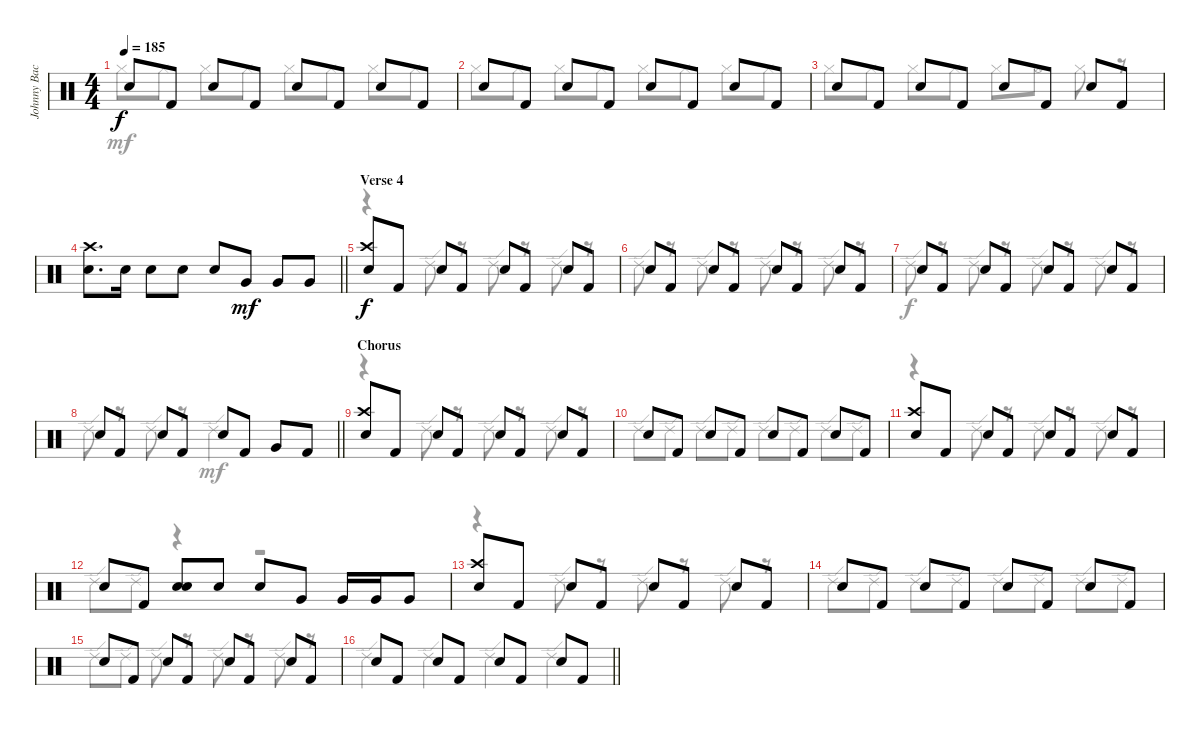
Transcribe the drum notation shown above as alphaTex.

\track ("Johnny Backbeat" "Johnny Bac") {instrument percussion}
\staff {score}
\articulation defaults
\voice
\ts (4 4)
\tempo 185
\clef neutral
\ks c "Electric Snare (hit)".8{dy f} "Kick (hit) 2".8 "Electric Snare (hit)".8 "Kick (hit) 2".8 "Electric Snare (hit)".8 "Kick (hit) 2".8 "Electric Snare (hit)".8 "Kick (hit) 2".8
|
"Electric Snare (hit)".8 "Kick (hit) 2".8 "Electric Snare (hit)".8 "Kick (hit) 2".8 "Electric Snare (hit)".8 "Kick (hit) 2".8 "Electric Snare (hit)".8 "Kick (hit) 2".8 |
"Electric Snare (hit)".8 "Kick (hit) 2".8 "Electric Snare (hit)".8 "Kick (hit) 2".8 "Electric Snare (hit)".8 "Kick (hit) 2".8 "Electric Snare (hit)".8 "Kick (hit) 2".8 |
\barLineRight lightlight
("Crash high (hit)" "Electric Snare (hit)").8{d} "Electric Snare (hit)".16 "Electric Snare (hit)".8 "Electric Snare (hit)".8 "Electric Snare (hit)".8 "Very Low Tom (hit)".8{dy mf} "Very Low Tom (hit)".8 "Very Low Tom (hit)".8 |
\section ("" "Verse 4")
("Crash high (hit)" "Electric Snare (hit)").8{dy f} "Kick (hit) 2".8 "Electric Snare (hit)".8 "Kick (hit) 2".8 "Electric Snare (hit)".8 "Kick (hit) 2".8 "Electric Snare (hit)".8 "Kick (hit) 2".8 |
"Electric Snare (hit)".8 "Kick (hit) 2".8 "Electric Snare (hit)".8 "Kick (hit) 2".8 "Electric Snare (hit)".8 "Kick (hit) 2".8 "Electric Snare (hit)".8 "Kick (hit) 2".8 |
"Electric Snare (hit)".8 "Kick (hit) 2".8 "Electric Snare (hit)".8 "Kick (hit) 2".8 "Electric Snare (hit)".8 "Kick (hit) 2".8 "Electric Snare (hit)".8 "Kick (hit) 2".8 |
\barLineRight lightlight "Electric Snare (hit)".8 "Kick (hit) 2".8 "Electric Snare (hit)".8 "Kick (hit) 2".8 "Electric Snare (hit)".8 "Kick (hit) 2".8 "Very Low Tom (hit)".8 "Kick (hit) 2".8
|
\section ("" "Chorus")
("Crash high (hit)" "Electric Snare (hit)").8 "Kick (hit) 2".8 "Electric Snare (hit)".8 "Kick (hit) 2".8 "Electric Snare (hit)".8 "Kick (hit) 2".8 "Electric Snare (hit)".8 "Kick (hit) 2".8 |
"Electric Snare (hit)".8 "Kick (hit) 2".8 "Electric Snare (hit)".8 "Kick (hit) 2".8 "Electric Snare (hit)".8 "Kick (hit) 2".8 "Electric Snare (hit)".8 "Kick (hit) 2".8 |
("Crash high (hit)" "Electric Snare (hit)").8 "Kick (hit) 2".8 "Electric Snare (hit)".8 "Kick (hit) 2".8 "Electric Snare (hit)".8 "Kick (hit) 2".8 "Electric Snare (hit)".8 "Kick (hit) 2".8 |
"Electric Snare (hit)".8 "Kick (hit) 2".8 ("Electric Snare (hit)" "Electric Snare (hit)").8 "Electric Snare (hit)".8 "Electric Snare (hit)".8 "Very Low Tom (hit)".8 "Very Low Tom (hit)".16 "Very Low Tom (hit)".16 "Very Low Tom (hit)".8 |
("Crash high (hit)" "Electric Snare (hit)").8 "Kick (hit) 2".8 "Electric Snare (hit)".8 "Kick (hit) 2".8 "Electric Snare (hit)".8 "Kick (hit) 2".8 "Electric Snare (hit)".8 "Kick (hit) 2".8 |
"Electric Snare (hit)".8 "Kick (hit) 2".8 "Electric Snare (hit)".8 "Kick (hit) 2".8 "Electric Snare (hit)".8 "Kick (hit) 2".8 "Electric Snare (hit)".8 "Kick (hit) 2".8 |
"Electric Snare (hit)".8 "Kick (hit) 2".8 "Electric Snare (hit)".8 "Kick (hit) 2".8 "Electric Snare (hit)".8 "Kick (hit) 2".8 "Electric Snare (hit)".8 "Kick (hit) 2".8 |
\barLineRight lightlight "Electric Snare (hit)".8 "Kick (hit) 2".8 "Electric Snare (hit)".8 "Kick (hit) 2".8 "Electric Snare (hit)".8 "Kick (hit) 2".8 "Electric Snare (hit)".8 "Kick (hit) 2".8
\voice
\clef neutral
\ottava regular
\simile none
\ks c "Hi-Hat (closed)".8{dy mf} "Hi-Hat (closed)".8 "Hi-Hat (closed)".8 "Hi-Hat (closed)".8 "Hi-Hat (closed)".8 "Hi-Hat (closed)".8 "Hi-Hat (closed)".8 "Hi-Hat (closed)".8
|
"Hi-Hat (closed)".8 "Hi-Hat (closed)".8 "Hi-Hat (closed)".8 "Hi-Hat (closed)".8 "Hi-Hat (closed)".8 "Hi-Hat (closed)".8 "Hi-Hat (closed)".8 "Hi-Hat (closed)".8 |
"Hi-Hat (closed)".8 "Hi-Hat (closed)".8 "Hi-Hat (closed)".8 "Hi-Hat (closed)".8 "Hi-Hat (closed)".8 "Hi-Hat (open)".8 "Hi-Hat (closed)".8 r.8 |
\barLineRight lightlight
|
r.4 "Ride (edge) 2".8 r.8 "Ride (edge) 2".8 r.8 "Ride (edge) 2".8 r.8 |
"Ride (edge) 2".8 r.8 "Ride (edge) 2".8 r.8 "Ride (edge) 2".8 r.8 "Ride (edge) 2".8 r.8 |
"Ride (edge) 2".8{dy f} r.8 "Ride (edge) 2".8 r.8 "Ride (edge) 2".8 r.8 "Ride (edge) 2".8 r.8 |
\barLineRight lightlight "Ride (edge) 2".8
r.8 "Ride (edge) 2".8 r.8 "Ride (edge) 2".2{dy mf} |
r.4 "Ride (edge) 2".8 r.8 "Ride (edge) 2".8 r.8 "Ride (edge) 2".8 r.8 |
"Ride (edge) 2".8 "Ride (edge) 2".8 "Ride (edge) 2".8 "Ride (edge) 2".8 "Ride (edge) 2".8 "Ride (edge) 2".8 "Ride (edge) 2".8 "Ride (edge) 2".8 |
r.4 "Ride (edge) 2".8 r.8 "Ride (edge) 2".8 r.8 "Ride (edge) 2".8 r.8 |
"Ride (edge) 2".8 "Ride (edge) 2".8 r.4 r.2 |
r.4 "Ride (edge) 2".8 r.8 "Ride (edge) 2".8 r.8 "Ride (edge) 2".8 r.8 |
"Ride (edge) 2".8 "Ride (edge) 2".8 "Ride (edge) 2".8 "Ride (edge) 2".8 "Ride (edge) 2".8 "Ride (edge) 2".8 "Ride (edge) 2".8 "Ride (edge) 2".8 |
"Ride (edge) 2".8 "Ride (edge) 2".8 "Ride (edge) 2".8 r.8 "Ride (edge) 2".8 r.8 "Ride (edge) 2".8 r.8 |
\barLineRight lightlight "Ride (edge) 2".4 "Ride (edge) 2".4 "Ride (edge) 2".4 "Ride (edge) 2".4
